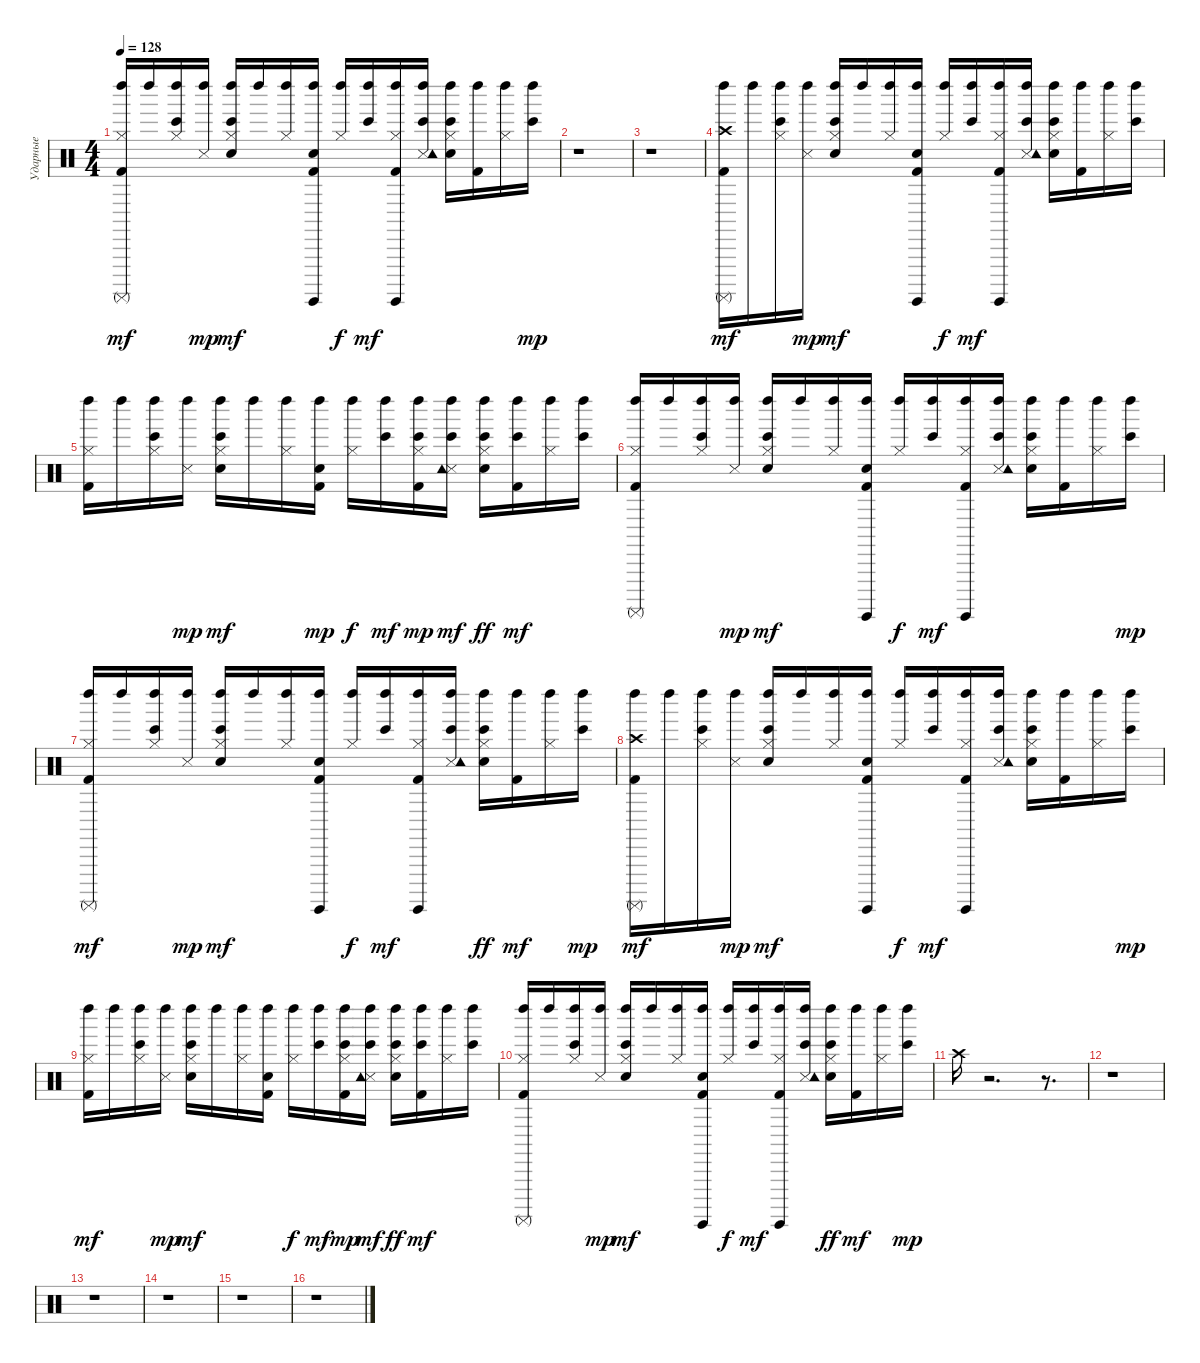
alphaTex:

\track ("Ударные" "Ударные") {instrument percussion}
\staff {score}
\articulation defaults
\ts (4 4)
\tempo 128
\clef neutral
\ks c
("Kick (hit) 2" "Hi-Hat (closed)" "Left Maraca (hit)" "Surdo (mute)").16{dy mf} "Left Maraca (hit)".16 ("Bongo High (hit)" "Hi-Hat (closed)" "Left Maraca (hit)").16 ("Snare (side stick) 3" "Left Maraca (hit)").16{dy mp} ("Bongo High (hit)" "Electric Snare (hit)" "Hi-Hat (closed)" "Left Maraca (hit)").16{dy mf} "Left Maraca (hit)".16 ("Hi-Hat (closed)" "Left Maraca (hit)").16 ("Kick (hit) 2" "Electric Snare (hit)" "Left Maraca (hit)" "Surdo (hit)").16 ("Hi-Hat (closed)" "Left Maraca (hit)").16{dy f} ("Bongo High (hit)" "Left Maraca (hit)").16{dy mf} ("Kick (hit) 2" "Hi-Hat (closed)" "Left Maraca (hit)" "Surdo (hit)").16 ("Bongo High (hit)" "Snare (side stick) 3" "Tambourine (hit)" "Left Maraca (hit)").16 ("Bongo High (hit)" "Electric Snare (hit)" "Hi-Hat (closed)" "Left Maraca (hit)").16 ("Kick (hit) 2" "Left Maraca (hit)").16 ("Hi-Hat (closed)" "Left Maraca (hit)").16 ("Bongo High (hit)" "Left Maraca (hit)").16{dy mp} |
r.1 |
r.1 |
("Kick (hit) 2" "Crash high (hit)" "Left Maraca (hit)" "Surdo (mute)").16{dy mf} "Left Maraca (hit)".16 ("Bongo High (hit)" "Hi-Hat (closed)" "Left Maraca (hit)").16 ("Snare (side stick) 3" "Left Maraca (hit)").16{dy mp} ("Bongo High (hit)" "Electric Snare (hit)" "Hi-Hat (closed)" "Left Maraca (hit)").16{dy mf} "Left Maraca (hit)".16 ("Hi-Hat (closed)" "Left Maraca (hit)").16 ("Kick (hit) 2" "Electric Snare (hit)" "Left Maraca (hit)" "Surdo (hit)").16 ("Hi-Hat (closed)" "Left Maraca (hit)").16{dy f} ("Bongo High (hit)" "Left Maraca (hit)").16{dy mf} ("Kick (hit) 2" "Hi-Hat (closed)" "Left Maraca (hit)" "Surdo (hit)").16 ("Bongo High (hit)" "Snare (side stick) 3" "Tambourine (hit)" "Left Maraca (hit)").16 ("Bongo High (hit)" "Electric Snare (hit)" "Hi-Hat (closed)" "Left Maraca (hit)").16 ("Kick (hit) 2" "Left Maraca (hit)").16 ("Hi-Hat (closed)" "Left Maraca (hit)").16 ("Bongo High (hit)" "Left Maraca (hit)").16 |
("Kick (hit) 2" "Hi-Hat (closed)" "Left Maraca (hit)").16 "Left Maraca (hit)".16 ("Bongo High (hit)" "Hi-Hat (closed)" "Left Maraca (hit)").16 ("Snare (side stick) 3" "Left Maraca (hit)").16{dy mp} ("Bongo High (hit)" "Electric Snare (hit)" "Hi-Hat (closed)" "Left Maraca (hit)").16{dy mf} "Left Maraca (hit)".16 ("Hi-Hat (closed)" "Left Maraca (hit)").16 ("Kick (hit) 2" "Electric Snare (hit)" "Left Maraca (hit)").16{dy mp} ("Hi-Hat (closed)" "Left Maraca (hit)").16{dy f} ("Bongo High (hit)" "Left Maraca (hit)").16{dy mf} ("Bongo High (hit)" "Kick (hit) 2" "Hi-Hat (closed)" "Left Maraca (hit)").16{dy mp} ("Bongo High (hit)" "Snare (side stick) 3" "Tambourine (hit)" "Left Maraca (hit)").16{dy mf} ("Bongo High (hit)" "Electric Snare (hit)" "Hi-Hat (closed)" "Left Maraca (hit)").16{dy ff} ("Bongo High (hit)" "Kick (hit) 2" "Left Maraca (hit)").16{dy mf} ("Hi-Hat (closed)" "Left Maraca (hit)").16 ("Bongo High (hit)" "Left Maraca (hit)").16 |
("Kick (hit) 2" "Hi-Hat (closed)" "Left Maraca (hit)" "Surdo (mute)").16 "Left Maraca (hit)".16 ("Bongo High (hit)" "Hi-Hat (closed)" "Left Maraca (hit)").16 ("Snare (side stick) 3" "Left Maraca (hit)").16{dy mp} ("Bongo High (hit)" "Electric Snare (hit)" "Hi-Hat (closed)" "Left Maraca (hit)").16{dy mf} "Left Maraca (hit)".16 ("Hi-Hat (closed)" "Left Maraca (hit)").16 ("Kick (hit) 2" "Electric Snare (hit)" "Left Maraca (hit)" "Surdo (hit)").16 ("Hi-Hat (closed)" "Left Maraca (hit)").16{dy f} ("Bongo High (hit)" "Left Maraca (hit)").16{dy mf} ("Kick (hit) 2" "Hi-Hat (closed)" "Left Maraca (hit)" "Surdo (hit)").16 ("Bongo High (hit)" "Snare (side stick) 3" "Tambourine (hit)" "Left Maraca (hit)").16 ("Bongo High (hit)" "Electric Snare (hit)" "Hi-Hat (closed)" "Left Maraca (hit)").16 ("Kick (hit) 2" "Left Maraca (hit)").16 ("Hi-Hat (closed)" "Left Maraca (hit)").16 ("Bongo High (hit)" "Left Maraca (hit)").16{dy mp} |
("Kick (hit) 2" "Hi-Hat (closed)" "Left Maraca (hit)" "Surdo (mute)").16{dy mf} "Left Maraca (hit)".16 ("Bongo High (hit)" "Hi-Hat (closed)" "Left Maraca (hit)").16 ("Snare (side stick) 3" "Left Maraca (hit)").16{dy mp} ("Bongo High (hit)" "Electric Snare (hit)" "Hi-Hat (closed)" "Left Maraca (hit)").16{dy mf} "Left Maraca (hit)".16 ("Hi-Hat (closed)" "Left Maraca (hit)").16 ("Kick (hit) 2" "Electric Snare (hit)" "Left Maraca (hit)" "Surdo (hit)").16 ("Hi-Hat (closed)" "Left Maraca (hit)").16{dy f} ("Bongo High (hit)" "Left Maraca (hit)").16{dy mf} ("Kick (hit) 2" "Hi-Hat (closed)" "Left Maraca (hit)" "Surdo (hit)").16 ("Bongo High (hit)" "Snare (side stick) 3" "Tambourine (hit)" "Left Maraca (hit)").16 ("Bongo High (hit)" "Electric Snare (hit)" "Hi-Hat (closed)" "Left Maraca (hit)").16{dy ff} ("Kick (hit) 2" "Left Maraca (hit)").16{dy mf} ("Hi-Hat (closed)" "Left Maraca (hit)").16 ("Bongo High (hit)" "Left Maraca (hit)").16{dy mp} |
("Kick (hit) 2" "Crash high (hit)" "Left Maraca (hit)" "Surdo (mute)").16{dy mf} "Left Maraca (hit)".16 ("Bongo High (hit)" "Hi-Hat (closed)" "Left Maraca (hit)").16 ("Snare (side stick) 3" "Left Maraca (hit)").16{dy mp} ("Bongo High (hit)" "Electric Snare (hit)" "Hi-Hat (closed)" "Left Maraca (hit)").16{dy mf} "Left Maraca (hit)".16 ("Hi-Hat (closed)" "Left Maraca (hit)").16 ("Kick (hit) 2" "Electric Snare (hit)" "Left Maraca (hit)" "Surdo (hit)").16 ("Hi-Hat (closed)" "Left Maraca (hit)").16{dy f} ("Bongo High (hit)" "Left Maraca (hit)").16{dy mf} ("Kick (hit) 2" "Hi-Hat (closed)" "Left Maraca (hit)" "Surdo (hit)").16 ("Bongo High (hit)" "Snare (side stick) 3" "Tambourine (hit)" "Left Maraca (hit)").16 ("Bongo High (hit)" "Electric Snare (hit)" "Hi-Hat (closed)" "Left Maraca (hit)").16 ("Kick (hit) 2" "Left Maraca (hit)").16 ("Hi-Hat (closed)" "Left Maraca (hit)").16 ("Bongo High (hit)" "Left Maraca (hit)").16{dy mp} |
("Kick (hit) 2" "Hi-Hat (closed)" "Left Maraca (hit)").16{dy mf} "Left Maraca (hit)".16 ("Bongo High (hit)" "Hi-Hat (closed)" "Left Maraca (hit)").16 ("Snare (side stick) 3" "Left Maraca (hit)").16{dy mp} ("Bongo High (hit)" "Electric Snare (hit)" "Hi-Hat (closed)" "Left Maraca (hit)").16{dy mf} "Left Maraca (hit)".16 ("Hi-Hat (closed)" "Left Maraca (hit)").16 ("Kick (hit) 2" "Electric Snare (hit)" "Left Maraca (hit)").16 ("Hi-Hat (closed)" "Left Maraca (hit)").16{dy f} ("Bongo High (hit)" "Left Maraca (hit)").16{dy mf} ("Bongo High (hit)" "Kick (hit) 2" "Hi-Hat (closed)" "Left Maraca (hit)").16{dy mp} ("Bongo High (hit)" "Snare (side stick) 3" "Tambourine (hit)" "Left Maraca (hit)").16{dy mf} ("Bongo High (hit)" "Electric Snare (hit)" "Hi-Hat (closed)" "Left Maraca (hit)").16{dy ff} ("Bongo High (hit)" "Kick (hit) 2" "Left Maraca (hit)").16{dy mf} ("Hi-Hat (closed)" "Left Maraca (hit)").16 ("Bongo High (hit)" "Left Maraca (hit)").16 |
("Kick (hit) 2" "Hi-Hat (closed)" "Left Maraca (hit)" "Surdo (mute)").16 "Left Maraca (hit)".16 ("Bongo High (hit)" "Hi-Hat (closed)" "Left Maraca (hit)").16 ("Snare (side stick) 3" "Left Maraca (hit)").16{dy mp} ("Bongo High (hit)" "Electric Snare (hit)" "Hi-Hat (closed)" "Left Maraca (hit)").16{dy mf} "Left Maraca (hit)".16 ("Hi-Hat (closed)" "Left Maraca (hit)").16 ("Kick (hit) 2" "Electric Snare (hit)" "Left Maraca (hit)" "Surdo (hit)").16 ("Hi-Hat (closed)" "Left Maraca (hit)").16{dy f} ("Bongo High (hit)" "Left Maraca (hit)").16{dy mf} ("Kick (hit) 2" "Hi-Hat (closed)" "Left Maraca (hit)" "Surdo (hit)").16 ("Bongo High (hit)" "Snare (side stick) 3" "Tambourine (hit)" "Left Maraca (hit)").16 ("Bongo High (hit)" "Electric Snare (hit)" "Hi-Hat (closed)" "Left Maraca (hit)").16{dy ff} ("Kick (hit) 2" "Left Maraca (hit)").16{dy mf} ("Hi-Hat (closed)" "Left Maraca (hit)").16 ("Bongo High (hit)" "Left Maraca (hit)").16{dy mp} |
"Crash high (hit)".16 r.2{d} r.8{d} |
r.1 |
r.1 |
r.1 |
r.1 |
r.1
